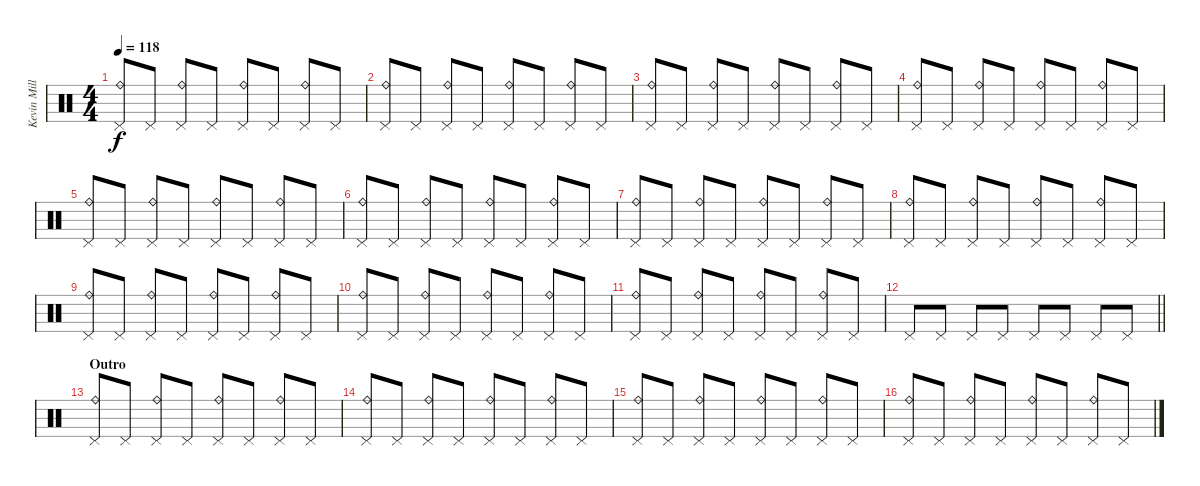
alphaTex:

\track ("Kevin Miller (Drums)" "Kevin Mill") {instrument percussion}
\staff {score}
\articulation defaults
\ts (4 4)
\tempo 118
\clef neutral
\ks c
("Pedal Hi-Hat (hit)" "Ride (bell)").8{dy f} "Pedal Hi-Hat (hit)".8 ("Pedal Hi-Hat (hit)" "Ride (bell)").8 "Pedal Hi-Hat (hit)".8 ("Pedal Hi-Hat (hit)" "Ride (bell)").8 "Pedal Hi-Hat (hit)".8 ("Pedal Hi-Hat (hit)" "Ride (bell)").8 "Pedal Hi-Hat (hit)".8 |
("Pedal Hi-Hat (hit)" "Ride (bell)").8 "Pedal Hi-Hat (hit)".8 ("Pedal Hi-Hat (hit)" "Ride (bell)").8 "Pedal Hi-Hat (hit)".8 ("Pedal Hi-Hat (hit)" "Ride (bell)").8 "Pedal Hi-Hat (hit)".8 ("Pedal Hi-Hat (hit)" "Ride (bell)").8 "Pedal Hi-Hat (hit)".8 |
("Pedal Hi-Hat (hit)" "Ride (bell)").8 "Pedal Hi-Hat (hit)".8 ("Pedal Hi-Hat (hit)" "Ride (bell)").8 "Pedal Hi-Hat (hit)".8 ("Pedal Hi-Hat (hit)" "Ride (bell)").8 "Pedal Hi-Hat (hit)".8 ("Pedal Hi-Hat (hit)" "Ride (bell)").8 "Pedal Hi-Hat (hit)".8 |
("Pedal Hi-Hat (hit)" "Ride (bell)").8 "Pedal Hi-Hat (hit)".8 ("Pedal Hi-Hat (hit)" "Ride (bell)").8 "Pedal Hi-Hat (hit)".8 ("Pedal Hi-Hat (hit)" "Ride (bell)").8 "Pedal Hi-Hat (hit)".8 ("Pedal Hi-Hat (hit)" "Ride (bell)").8 "Pedal Hi-Hat (hit)".8 |
("Pedal Hi-Hat (hit)" "Ride (bell)").8 "Pedal Hi-Hat (hit)".8 ("Pedal Hi-Hat (hit)" "Ride (bell)").8 "Pedal Hi-Hat (hit)".8 ("Pedal Hi-Hat (hit)" "Ride (bell)").8 "Pedal Hi-Hat (hit)".8 ("Pedal Hi-Hat (hit)" "Ride (bell)").8 "Pedal Hi-Hat (hit)".8 |
("Pedal Hi-Hat (hit)" "Ride (bell)").8 "Pedal Hi-Hat (hit)".8 ("Pedal Hi-Hat (hit)" "Ride (bell)").8 "Pedal Hi-Hat (hit)".8 ("Pedal Hi-Hat (hit)" "Ride (bell)").8 "Pedal Hi-Hat (hit)".8 ("Pedal Hi-Hat (hit)" "Ride (bell)").8 "Pedal Hi-Hat (hit)".8 |
("Pedal Hi-Hat (hit)" "Ride (bell)").8 "Pedal Hi-Hat (hit)".8 ("Pedal Hi-Hat (hit)" "Ride (bell)").8 "Pedal Hi-Hat (hit)".8 ("Pedal Hi-Hat (hit)" "Ride (bell)").8 "Pedal Hi-Hat (hit)".8 ("Pedal Hi-Hat (hit)" "Ride (bell)").8 "Pedal Hi-Hat (hit)".8 |
("Pedal Hi-Hat (hit)" "Ride (bell)").8 "Pedal Hi-Hat (hit)".8 ("Pedal Hi-Hat (hit)" "Ride (bell)").8 "Pedal Hi-Hat (hit)".8 ("Pedal Hi-Hat (hit)" "Ride (bell)").8 "Pedal Hi-Hat (hit)".8 ("Pedal Hi-Hat (hit)" "Ride (bell)").8 "Pedal Hi-Hat (hit)".8 |
("Pedal Hi-Hat (hit)" "Ride (bell)").8 "Pedal Hi-Hat (hit)".8 ("Pedal Hi-Hat (hit)" "Ride (bell)").8 "Pedal Hi-Hat (hit)".8 ("Pedal Hi-Hat (hit)" "Ride (bell)").8 "Pedal Hi-Hat (hit)".8 ("Pedal Hi-Hat (hit)" "Ride (bell)").8 "Pedal Hi-Hat (hit)".8 |
("Pedal Hi-Hat (hit)" "Ride (bell)").8 "Pedal Hi-Hat (hit)".8 ("Pedal Hi-Hat (hit)" "Ride (bell)").8 "Pedal Hi-Hat (hit)".8 ("Pedal Hi-Hat (hit)" "Ride (bell)").8 "Pedal Hi-Hat (hit)".8 ("Pedal Hi-Hat (hit)" "Ride (bell)").8 "Pedal Hi-Hat (hit)".8 |
("Pedal Hi-Hat (hit)" "Ride (bell)").8 "Pedal Hi-Hat (hit)".8 ("Pedal Hi-Hat (hit)" "Ride (bell)").8 "Pedal Hi-Hat (hit)".8 ("Pedal Hi-Hat (hit)" "Ride (bell)").8 "Pedal Hi-Hat (hit)".8 ("Pedal Hi-Hat (hit)" "Ride (bell)").8 "Pedal Hi-Hat (hit)".8 |
\barLineRight lightlight "Pedal Hi-Hat (hit)".8 "Pedal Hi-Hat (hit)".8 "Pedal Hi-Hat (hit)".8 "Pedal Hi-Hat (hit)".8 "Pedal Hi-Hat (hit)".8 "Pedal Hi-Hat (hit)".8 "Pedal Hi-Hat (hit)".8 "Pedal Hi-Hat (hit)".8
|
\section ("" "Outro")
("Pedal Hi-Hat (hit)" "Ride (bell)").8 "Pedal Hi-Hat (hit)".8 ("Pedal Hi-Hat (hit)" "Ride (bell)").8 "Pedal Hi-Hat (hit)".8 ("Pedal Hi-Hat (hit)" "Ride (bell)").8 "Pedal Hi-Hat (hit)".8 ("Pedal Hi-Hat (hit)" "Ride (bell)").8 "Pedal Hi-Hat (hit)".8 |
("Pedal Hi-Hat (hit)" "Ride (bell)").8 "Pedal Hi-Hat (hit)".8 ("Pedal Hi-Hat (hit)" "Ride (bell)").8 "Pedal Hi-Hat (hit)".8 ("Pedal Hi-Hat (hit)" "Ride (bell)").8 "Pedal Hi-Hat (hit)".8 ("Pedal Hi-Hat (hit)" "Ride (bell)").8 "Pedal Hi-Hat (hit)".8 |
("Pedal Hi-Hat (hit)" "Ride (bell)").8 "Pedal Hi-Hat (hit)".8 ("Pedal Hi-Hat (hit)" "Ride (bell)").8 "Pedal Hi-Hat (hit)".8 ("Pedal Hi-Hat (hit)" "Ride (bell)").8 "Pedal Hi-Hat (hit)".8 ("Pedal Hi-Hat (hit)" "Ride (bell)").8 "Pedal Hi-Hat (hit)".8 |
("Pedal Hi-Hat (hit)" "Ride (bell)").8 "Pedal Hi-Hat (hit)".8 ("Pedal Hi-Hat (hit)" "Ride (bell)").8 "Pedal Hi-Hat (hit)".8 ("Pedal Hi-Hat (hit)" "Ride (bell)").8 "Pedal Hi-Hat (hit)".8 ("Pedal Hi-Hat (hit)" "Ride (bell)").8 "Pedal Hi-Hat (hit)".8
